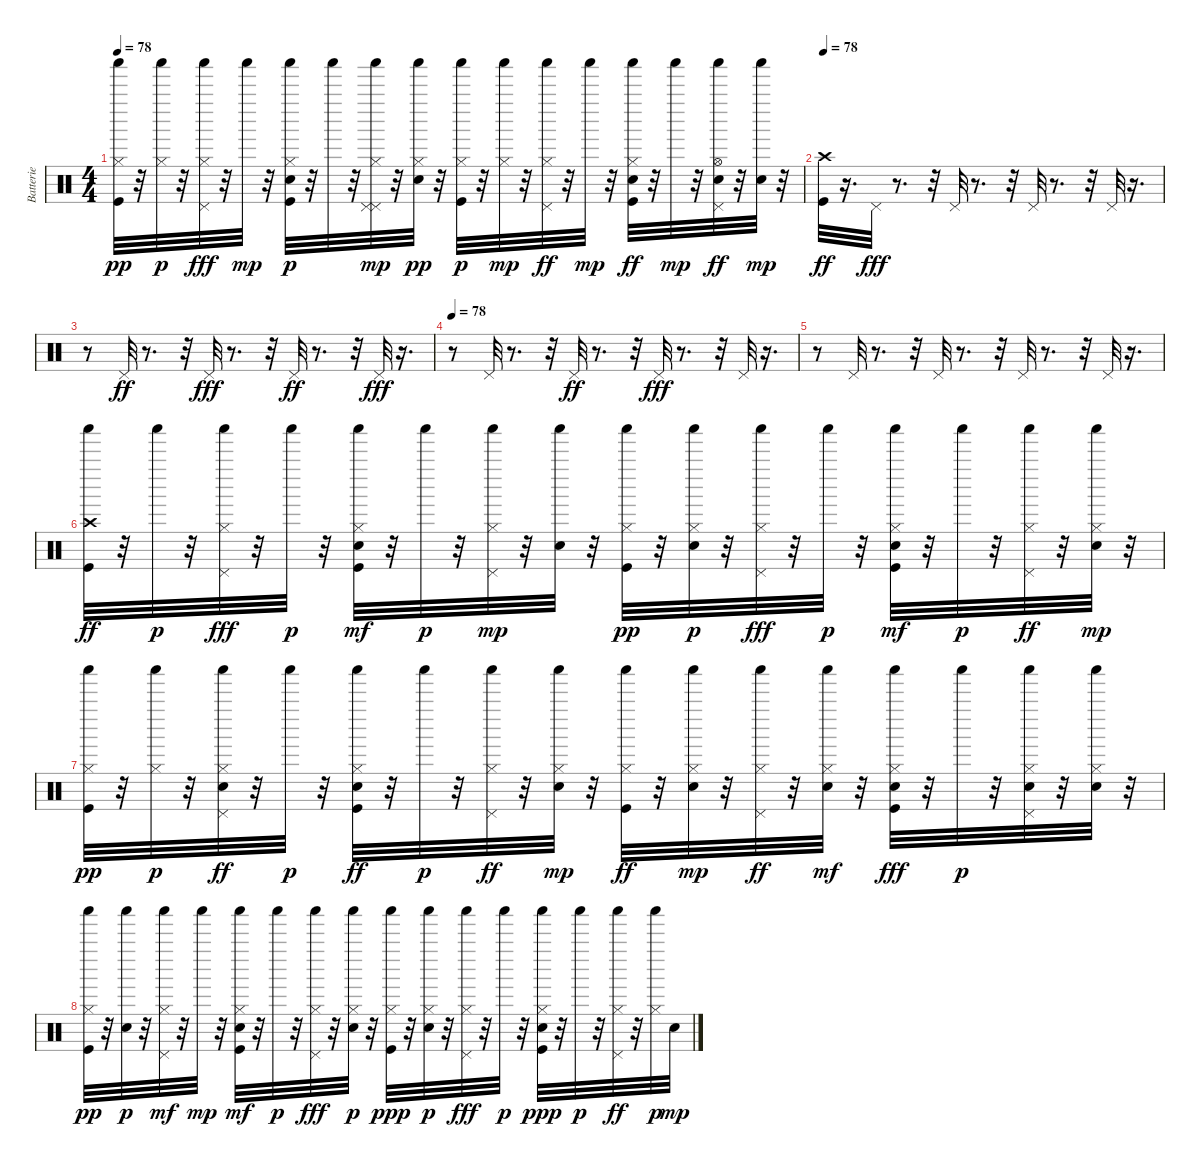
\track ("Batterie" "Batterie") {instrument percussion}
\staff {score}
\articulation defaults
\ts (4 4)
\tempo 78
\clef neutral
\ks c
("Hi-Hat (closed)" "Kick (hit)" "Shaker (hit)").32{dy pp} r.32 ("Hi-Hat (closed)" "Shaker (hit)").32{dy p} r.32 ("Hi-Hat (closed)" "Pedal Hi-Hat (hit)" "Shaker (hit)").32{dy fff} r.32 "Shaker (hit)".32{dy mp} r.32 ("Electric Snare (hit)" "Hi-Hat (closed)" "Kick (hit)" "Shaker (hit)").32{dy p} r.32 "Shaker (hit)".32 r.32 ("Pedal Hi-Hat (hit)" "Pedal Hi-Hat (hit)" "Hi-Hat (closed)" "Shaker (hit)").32{dy mp} r.32 ("Hi-Hat (closed)" "Shaker (hit)" "Electric Snare (hit)").32{dy pp} r.32 ("Hi-Hat (closed)" "Kick (hit)" "Shaker (hit)").32{dy p} r.32 ("Hi-Hat (closed)" "Shaker (hit)").32{dy mp} r.32 ("Pedal Hi-Hat (hit)" "Hi-Hat (closed)" "Shaker (hit)").32{dy ff} r.32 "Shaker (hit)".32{dy mp} r.32 ("Electric Snare (hit)" "Kick (hit)" "Shaker (hit)" "Hi-Hat (closed)").32{dy ff} r.32 "Shaker (hit)".32{dy mp} r.32 ("Electric Snare (hit)" "Pedal Hi-Hat (hit)" "Shaker (hit)" "Hi-Hat (open)").32{dy ff} r.32 ("Electric Snare (hit)" "Shaker (hit)").32{dy mp} r.32 |
\tempo 78
("Kick (hit)" "Crash high (hit)").32{dy ff} r.16{d} "Pedal Hi-Hat (hit)".32{dy fff} r.8{d} r.32 "Pedal Hi-Hat (hit)".32 r.8{d} r.32 "Pedal Hi-Hat (hit)".32 r.8{d} r.32 "Pedal Hi-Hat (hit)".32 r.16{d} |
r.8 "Pedal Hi-Hat (hit)".32{dy ff} r.8{d} r.32 "Pedal Hi-Hat (hit)".32{dy fff} r.8{d} r.32 "Pedal Hi-Hat (hit)".32{dy ff} r.8{d} r.32 "Pedal Hi-Hat (hit)".32{dy fff} r.16{d} |
\tempo 78
r.8 "Pedal Hi-Hat (hit)".32 r.8{d} r.32 "Pedal Hi-Hat (hit)".32{dy ff} r.8{d} r.32 "Pedal Hi-Hat (hit)".32{dy fff} r.8{d} r.32 "Pedal Hi-Hat (hit)".32 r.16{d} |
r.8 "Pedal Hi-Hat (hit)".32 r.8{d} r.32 "Pedal Hi-Hat (hit)".32 r.8{d} r.32 "Pedal Hi-Hat (hit)".32 r.8{d} r.32 "Pedal Hi-Hat (hit)".32 r.16{d} |
("Kick (hit)" "Shaker (hit)" "Crash high (hit)").32{dy ff} r.32 "Shaker (hit)".32{dy p} r.32 ("Shaker (hit)" "Pedal Hi-Hat (hit)" "Hi-Hat (closed)").32{dy fff} r.32 "Shaker (hit)".32{dy p} r.32 ("Kick (hit)" "Hi-Hat (closed)" "Shaker (hit)" "Electric Snare (hit)").32{dy mf} r.32 "Shaker (hit)".32{dy p} r.32 ("Pedal Hi-Hat (hit)" "Shaker (hit)" "Hi-Hat (closed)").32{dy mp} r.32 ("Shaker (hit)" "Electric Snare (hit)").32 r.32 ("Hi-Hat (closed)" "Kick (hit)" "Shaker (hit)").32{dy pp} r.32 ("Hi-Hat (closed)" "Shaker (hit)" "Electric Snare (hit)").32{dy p} r.32 ("Hi-Hat (closed)" "Pedal Hi-Hat (hit)" "Shaker (hit)").32{dy fff} r.32 "Shaker (hit)".32{dy p} r.32 ("Electric Snare (hit)" "Hi-Hat (closed)" "Shaker (hit)" "Kick (hit)").32{dy mf} r.32 "Shaker (hit)".32{dy p} r.32 ("Hi-Hat (closed)" "Pedal Hi-Hat (hit)" "Shaker (hit)").32{dy ff} r.32 ("Hi-Hat (closed)" "Shaker (hit)" "Electric Snare (hit)").32{dy mp} r.32 |
("Hi-Hat (closed)" "Kick (hit)" "Shaker (hit)").32{dy pp} r.32 ("Hi-Hat (closed)" "Shaker (hit)").32{dy p} r.32 ("Electric Snare (hit)" "Hi-Hat (closed)" "Shaker (hit)" "Pedal Hi-Hat (hit)").32{dy ff} r.32 "Shaker (hit)".32{dy p} r.32 ("Electric Snare (hit)" "Kick (hit)" "Shaker (hit)" "Hi-Hat (closed)").32{dy ff} r.32 "Shaker (hit)".32{dy p} r.32 ("Shaker (hit)" "Hi-Hat (closed)" "Pedal Hi-Hat (hit)").32{dy ff} r.32 ("Electric Snare (hit)" "Hi-Hat (closed)" "Shaker (hit)").32{dy mp} r.32 ("Kick (hit)" "Shaker (hit)" "Hi-Hat (closed)").32{dy ff} r.32 ("Electric Snare (hit)" "Shaker (hit)" "Hi-Hat (closed)").32{dy mp} r.32 ("Pedal Hi-Hat (hit)" "Shaker (hit)" "Hi-Hat (closed)").32{dy ff} r.32 ("Electric Snare (hit)" "Shaker (hit)" "Hi-Hat (closed)").32{dy mf} r.32 ("Electric Snare (hit)" "Kick (hit)" "Shaker (hit)" "Hi-Hat (closed)").32{dy fff} r.32 "Shaker (hit)".32{dy p} r.32 ("Hi-Hat (closed)" "Shaker (hit)" "Pedal Hi-Hat (hit)" "Electric Snare (hit)").32 r.32 ("Hi-Hat (closed)" "Shaker (hit)" "Electric Snare (hit)").32 r.32 |
("Kick (hit)" "Hi-Hat (closed)" "Shaker (hit)").32{dy pp} r.32 ("Shaker (hit)" "Electric Snare (hit)").32{dy p} r.32 ("Pedal Hi-Hat (hit)" "Shaker (hit)" "Hi-Hat (closed)").32{dy mf} r.32 "Shaker (hit)".32{dy mp} r.32 ("Hi-Hat (closed)" "Kick (hit)" "Shaker (hit)" "Electric Snare (hit)").32{dy mf} r.32 "Shaker (hit)".32{dy p} r.32 ("Shaker (hit)" "Hi-Hat (closed)" "Pedal Hi-Hat (hit)").32{dy fff} r.32 ("Electric Snare (hit)" "Hi-Hat (closed)" "Shaker (hit)").32{dy p} r.32 ("Kick (hit)" "Hi-Hat (closed)" "Shaker (hit)").32{dy ppp} r.32 ("Electric Snare (hit)" "Hi-Hat (closed)" "Shaker (hit)").32{dy p} r.32 ("Hi-Hat (closed)" "Shaker (hit)" "Pedal Hi-Hat (hit)").32{dy fff} r.32 "Shaker (hit)".32{dy p} r.32 ("Electric Snare (hit)" "Hi-Hat (closed)" "Kick (hit)" "Shaker (hit)").32{dy ppp} r.32 "Shaker (hit)".32{dy p} r.32 ("Hi-Hat (closed)" "Shaker (hit)" "Pedal Hi-Hat (hit)").32{dy ff} r.32 ("Hi-Hat (closed)" "Shaker (hit)").32{dy p} "Electric Snare (hit)".32{dy mp}
